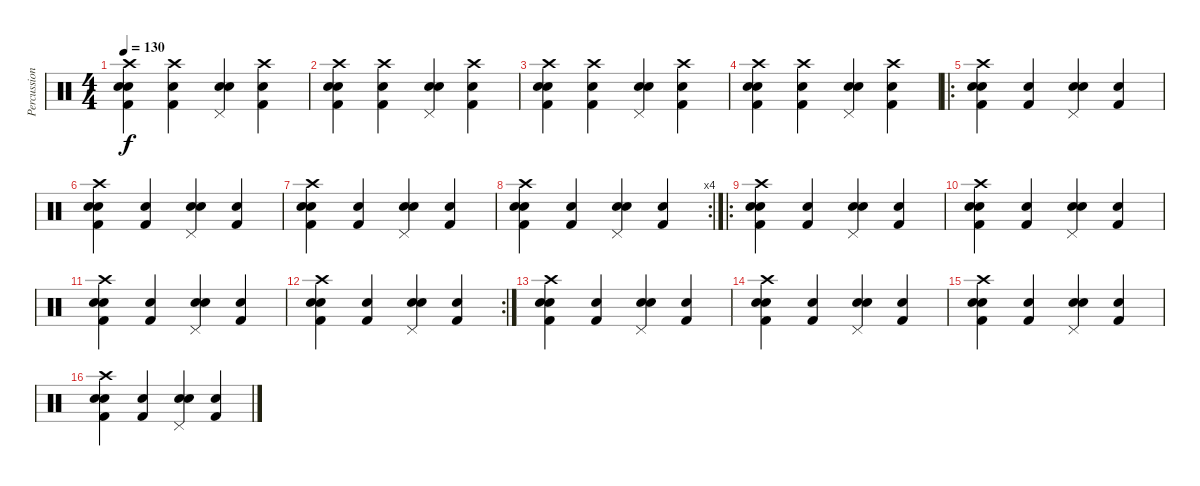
\track ("Percussion" "Percussion") {instrument percussion}
\staff {score}
\articulation defaults
\ts (4 4)
\tempo 130
\clef neutral
\ks c
("Crash high (hit)" "Snare (hit) 2" "Kick (hit) 2" "Snare (hit) 2").4{dy f} ("Crash high (hit)" "Kick (hit) 2" "Snare (hit) 2").4 ("Pedal Hi-Hat (hit)" "Snare (hit) 2" "Snare (hit) 2").4 ("Crash high (hit)" "Snare (hit) 2" "Kick (hit) 2").4 |
("Crash high (hit)" "Snare (hit) 2" "Kick (hit) 2" "Snare (hit) 2").4 ("Crash high (hit)" "Kick (hit) 2" "Snare (hit) 2").4 ("Pedal Hi-Hat (hit)" "Snare (hit) 2" "Snare (hit) 2").4 ("Crash high (hit)" "Snare (hit) 2" "Kick (hit) 2").4 |
("Crash high (hit)" "Snare (hit) 2" "Kick (hit) 2" "Snare (hit) 2").4 ("Crash high (hit)" "Kick (hit) 2" "Snare (hit) 2").4 ("Pedal Hi-Hat (hit)" "Snare (hit) 2" "Snare (hit) 2").4 ("Crash high (hit)" "Snare (hit) 2" "Kick (hit) 2").4 |
("Crash high (hit)" "Snare (hit) 2" "Kick (hit) 2" "Snare (hit) 2").4 ("Crash high (hit)" "Kick (hit) 2" "Snare (hit) 2").4 ("Pedal Hi-Hat (hit)" "Snare (hit) 2" "Snare (hit) 2").4 ("Crash high (hit)" "Snare (hit) 2" "Kick (hit) 2").4 |
\ro
("Crash high (hit)" "Snare (hit) 2" "Kick (hit) 2" "Snare (hit) 2").4 ("Kick (hit) 2" "Snare (hit) 2").4 ("Pedal Hi-Hat (hit)" "Snare (hit) 2" "Snare (hit) 2").4 ("Snare (hit) 2" "Kick (hit) 2").4 |
("Crash high (hit)" "Snare (hit) 2" "Kick (hit) 2" "Snare (hit) 2").4 ("Kick (hit) 2" "Snare (hit) 2").4 ("Pedal Hi-Hat (hit)" "Snare (hit) 2" "Snare (hit) 2").4 ("Snare (hit) 2" "Kick (hit) 2").4 |
("Crash high (hit)" "Snare (hit) 2" "Kick (hit) 2" "Snare (hit) 2").4 ("Kick (hit) 2" "Snare (hit) 2").4 ("Pedal Hi-Hat (hit)" "Snare (hit) 2" "Snare (hit) 2").4 ("Snare (hit) 2" "Kick (hit) 2").4 |
\rc 4
("Crash high (hit)" "Snare (hit) 2" "Kick (hit) 2" "Snare (hit) 2").4 ("Kick (hit) 2" "Snare (hit) 2").4 ("Pedal Hi-Hat (hit)" "Snare (hit) 2" "Snare (hit) 2").4 ("Snare (hit) 2" "Kick (hit) 2").4 |
\ro
("Crash high (hit)" "Snare (hit) 2" "Kick (hit) 2" "Snare (hit) 2").4 ("Kick (hit) 2" "Snare (hit) 2").4 ("Pedal Hi-Hat (hit)" "Snare (hit) 2" "Snare (hit) 2").4 ("Snare (hit) 2" "Kick (hit) 2").4 |
("Crash high (hit)" "Snare (hit) 2" "Kick (hit) 2" "Snare (hit) 2").4 ("Kick (hit) 2" "Snare (hit) 2").4 ("Pedal Hi-Hat (hit)" "Snare (hit) 2" "Snare (hit) 2").4 ("Snare (hit) 2" "Kick (hit) 2").4 |
("Crash high (hit)" "Snare (hit) 2" "Kick (hit) 2" "Snare (hit) 2").4 ("Kick (hit) 2" "Snare (hit) 2").4 ("Pedal Hi-Hat (hit)" "Snare (hit) 2" "Snare (hit) 2").4 ("Snare (hit) 2" "Kick (hit) 2").4 |
\rc 2
("Crash high (hit)" "Snare (hit) 2" "Kick (hit) 2" "Snare (hit) 2").4 ("Kick (hit) 2" "Snare (hit) 2").4 ("Pedal Hi-Hat (hit)" "Snare (hit) 2" "Snare (hit) 2").4 ("Snare (hit) 2" "Kick (hit) 2").4 |
("Crash high (hit)" "Snare (hit) 2" "Kick (hit) 2" "Snare (hit) 2").4 ("Kick (hit) 2" "Snare (hit) 2").4 ("Pedal Hi-Hat (hit)" "Snare (hit) 2" "Snare (hit) 2").4 ("Snare (hit) 2" "Kick (hit) 2").4 |
("Crash high (hit)" "Snare (hit) 2" "Kick (hit) 2" "Snare (hit) 2").4 ("Kick (hit) 2" "Snare (hit) 2").4 ("Pedal Hi-Hat (hit)" "Snare (hit) 2" "Snare (hit) 2").4 ("Snare (hit) 2" "Kick (hit) 2").4 |
("Crash high (hit)" "Snare (hit) 2" "Kick (hit) 2" "Snare (hit) 2").4 ("Kick (hit) 2" "Snare (hit) 2").4 ("Pedal Hi-Hat (hit)" "Snare (hit) 2" "Snare (hit) 2").4 ("Snare (hit) 2" "Kick (hit) 2").4 |
("Crash high (hit)" "Snare (hit) 2" "Kick (hit) 2" "Snare (hit) 2").4 ("Kick (hit) 2" "Snare (hit) 2").4 ("Pedal Hi-Hat (hit)" "Snare (hit) 2" "Snare (hit) 2").4 ("Snare (hit) 2" "Kick (hit) 2").4
